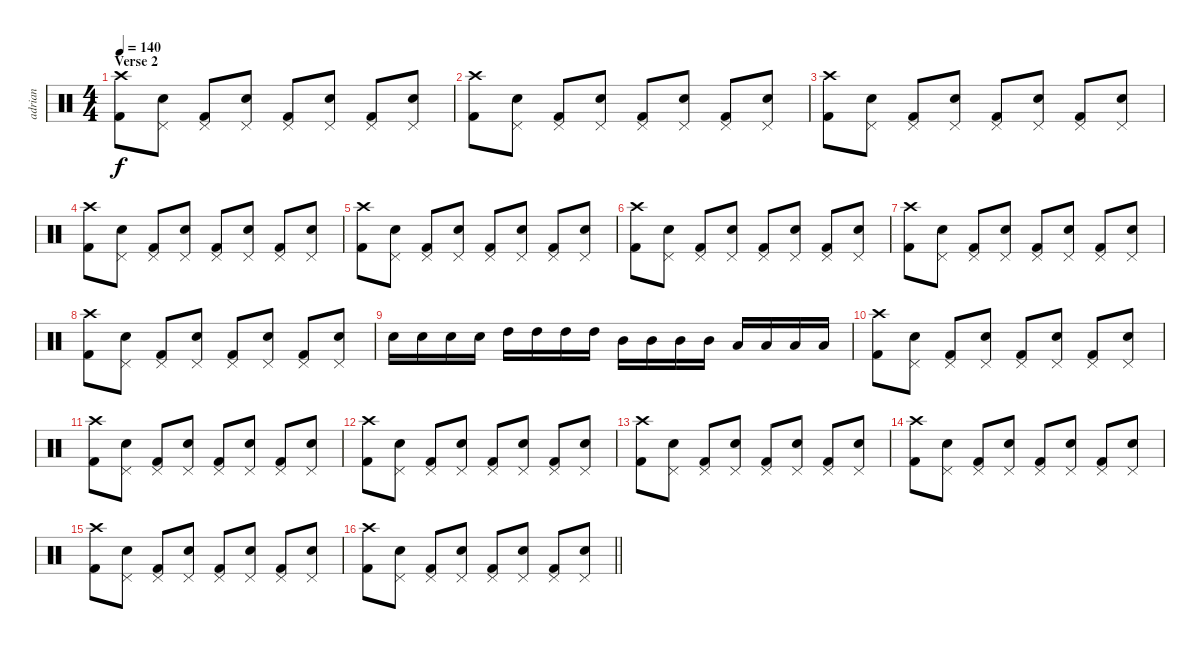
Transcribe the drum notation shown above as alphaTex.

\track ("adrian" "adrian") {instrument percussion}
\staff {score}
\articulation defaults
\ts (4 4)
\section ("" "Verse 2")
\tempo 140
\clef neutral
\ks c
("Kick (hit) 2" "Crash high (hit)").8{dy f} ("Electric Snare (hit)" "Pedal Hi-Hat (hit)").8 ("Kick (hit) 2" "Pedal Hi-Hat (hit)").8 ("Electric Snare (hit)" "Pedal Hi-Hat (hit)").8 ("Kick (hit) 2" "Pedal Hi-Hat (hit)").8 ("Electric Snare (hit)" "Pedal Hi-Hat (hit)").8 ("Kick (hit) 2" "Pedal Hi-Hat (hit)").8 ("Electric Snare (hit)" "Pedal Hi-Hat (hit)").8 |
("Kick (hit) 2" "Crash high (hit)").8 ("Electric Snare (hit)" "Pedal Hi-Hat (hit)").8 ("Kick (hit) 2" "Pedal Hi-Hat (hit)").8 ("Electric Snare (hit)" "Pedal Hi-Hat (hit)").8 ("Kick (hit) 2" "Pedal Hi-Hat (hit)").8 ("Electric Snare (hit)" "Pedal Hi-Hat (hit)").8 ("Kick (hit) 2" "Pedal Hi-Hat (hit)").8 ("Electric Snare (hit)" "Pedal Hi-Hat (hit)").8 |
("Kick (hit) 2" "Crash high (hit)").8 ("Electric Snare (hit)" "Pedal Hi-Hat (hit)").8 ("Kick (hit) 2" "Pedal Hi-Hat (hit)").8 ("Electric Snare (hit)" "Pedal Hi-Hat (hit)").8 ("Kick (hit) 2" "Pedal Hi-Hat (hit)").8 ("Electric Snare (hit)" "Pedal Hi-Hat (hit)").8 ("Kick (hit) 2" "Pedal Hi-Hat (hit)").8 ("Electric Snare (hit)" "Pedal Hi-Hat (hit)").8 |
("Kick (hit) 2" "Crash high (hit)").8 ("Electric Snare (hit)" "Pedal Hi-Hat (hit)").8 ("Kick (hit) 2" "Pedal Hi-Hat (hit)").8 ("Electric Snare (hit)" "Pedal Hi-Hat (hit)").8 ("Kick (hit) 2" "Pedal Hi-Hat (hit)").8 ("Electric Snare (hit)" "Pedal Hi-Hat (hit)").8 ("Kick (hit) 2" "Pedal Hi-Hat (hit)").8 ("Electric Snare (hit)" "Pedal Hi-Hat (hit)").8 |
("Kick (hit) 2" "Crash high (hit)").8 ("Electric Snare (hit)" "Pedal Hi-Hat (hit)").8 ("Kick (hit) 2" "Pedal Hi-Hat (hit)").8 ("Electric Snare (hit)" "Pedal Hi-Hat (hit)").8 ("Kick (hit) 2" "Pedal Hi-Hat (hit)").8 ("Electric Snare (hit)" "Pedal Hi-Hat (hit)").8 ("Kick (hit) 2" "Pedal Hi-Hat (hit)").8 ("Electric Snare (hit)" "Pedal Hi-Hat (hit)").8 |
("Kick (hit) 2" "Crash high (hit)").8 ("Electric Snare (hit)" "Pedal Hi-Hat (hit)").8 ("Kick (hit) 2" "Pedal Hi-Hat (hit)").8 ("Electric Snare (hit)" "Pedal Hi-Hat (hit)").8 ("Kick (hit) 2" "Pedal Hi-Hat (hit)").8 ("Electric Snare (hit)" "Pedal Hi-Hat (hit)").8 ("Kick (hit) 2" "Pedal Hi-Hat (hit)").8 ("Electric Snare (hit)" "Pedal Hi-Hat (hit)").8 |
("Kick (hit) 2" "Crash high (hit)").8 ("Electric Snare (hit)" "Pedal Hi-Hat (hit)").8 ("Kick (hit) 2" "Pedal Hi-Hat (hit)").8 ("Electric Snare (hit)" "Pedal Hi-Hat (hit)").8 ("Kick (hit) 2" "Pedal Hi-Hat (hit)").8 ("Electric Snare (hit)" "Pedal Hi-Hat (hit)").8 ("Kick (hit) 2" "Pedal Hi-Hat (hit)").8 ("Electric Snare (hit)" "Pedal Hi-Hat (hit)").8 |
("Kick (hit) 2" "Crash high (hit)").8 ("Electric Snare (hit)" "Pedal Hi-Hat (hit)").8 ("Kick (hit) 2" "Pedal Hi-Hat (hit)").8 ("Electric Snare (hit)" "Pedal Hi-Hat (hit)").8 ("Kick (hit) 2" "Pedal Hi-Hat (hit)").8 ("Electric Snare (hit)" "Pedal Hi-Hat (hit)").8 ("Kick (hit) 2" "Pedal Hi-Hat (hit)").8 ("Electric Snare (hit)" "Pedal Hi-Hat (hit)").8 |
"Snare (hit) 2".16 "Snare (hit) 2".16 "Snare (hit) 2".16 "Snare (hit) 2".16 "High Tom (hit)".16 "High Tom (hit)".16 "High Tom (hit)".16 "High Tom (hit)".16 "Mid Tom (hit)".16 "Mid Tom (hit)".16 "Mid Tom (hit)".16 "Mid Tom (hit)".16 "Low Tom (hit)".16 "Low Tom (hit)".16 "Low Tom (hit)".16 "Low Tom (hit)".16 |
("Kick (hit) 2" "Crash high (hit)").8 ("Electric Snare (hit)" "Pedal Hi-Hat (hit)").8 ("Kick (hit) 2" "Pedal Hi-Hat (hit)").8 ("Electric Snare (hit)" "Pedal Hi-Hat (hit)").8 ("Kick (hit) 2" "Pedal Hi-Hat (hit)").8 ("Electric Snare (hit)" "Pedal Hi-Hat (hit)").8 ("Kick (hit) 2" "Pedal Hi-Hat (hit)").8 ("Electric Snare (hit)" "Pedal Hi-Hat (hit)").8 |
("Kick (hit) 2" "Crash high (hit)").8 ("Electric Snare (hit)" "Pedal Hi-Hat (hit)").8 ("Kick (hit) 2" "Pedal Hi-Hat (hit)").8 ("Electric Snare (hit)" "Pedal Hi-Hat (hit)").8 ("Kick (hit) 2" "Pedal Hi-Hat (hit)").8 ("Electric Snare (hit)" "Pedal Hi-Hat (hit)").8 ("Kick (hit) 2" "Pedal Hi-Hat (hit)").8 ("Electric Snare (hit)" "Pedal Hi-Hat (hit)").8 |
("Kick (hit) 2" "Crash high (hit)").8 ("Electric Snare (hit)" "Pedal Hi-Hat (hit)").8 ("Kick (hit) 2" "Pedal Hi-Hat (hit)").8 ("Electric Snare (hit)" "Pedal Hi-Hat (hit)").8 ("Kick (hit) 2" "Pedal Hi-Hat (hit)").8 ("Electric Snare (hit)" "Pedal Hi-Hat (hit)").8 ("Kick (hit) 2" "Pedal Hi-Hat (hit)").8 ("Electric Snare (hit)" "Pedal Hi-Hat (hit)").8 |
("Kick (hit) 2" "Crash high (hit)").8 ("Electric Snare (hit)" "Pedal Hi-Hat (hit)").8 ("Kick (hit) 2" "Pedal Hi-Hat (hit)").8 ("Electric Snare (hit)" "Pedal Hi-Hat (hit)").8 ("Kick (hit) 2" "Pedal Hi-Hat (hit)").8 ("Electric Snare (hit)" "Pedal Hi-Hat (hit)").8 ("Kick (hit) 2" "Pedal Hi-Hat (hit)").8 ("Electric Snare (hit)" "Pedal Hi-Hat (hit)").8 |
("Kick (hit) 2" "Crash high (hit)").8 ("Electric Snare (hit)" "Pedal Hi-Hat (hit)").8 ("Kick (hit) 2" "Pedal Hi-Hat (hit)").8 ("Electric Snare (hit)" "Pedal Hi-Hat (hit)").8 ("Kick (hit) 2" "Pedal Hi-Hat (hit)").8 ("Electric Snare (hit)" "Pedal Hi-Hat (hit)").8 ("Kick (hit) 2" "Pedal Hi-Hat (hit)").8 ("Electric Snare (hit)" "Pedal Hi-Hat (hit)").8 |
("Kick (hit) 2" "Crash high (hit)").8 ("Electric Snare (hit)" "Pedal Hi-Hat (hit)").8 ("Kick (hit) 2" "Pedal Hi-Hat (hit)").8 ("Electric Snare (hit)" "Pedal Hi-Hat (hit)").8 ("Kick (hit) 2" "Pedal Hi-Hat (hit)").8 ("Electric Snare (hit)" "Pedal Hi-Hat (hit)").8 ("Kick (hit) 2" "Pedal Hi-Hat (hit)").8 ("Electric Snare (hit)" "Pedal Hi-Hat (hit)").8 |
\barLineRight lightlight
("Kick (hit) 2" "Crash high (hit)").8 ("Electric Snare (hit)" "Pedal Hi-Hat (hit)").8 ("Kick (hit) 2" "Pedal Hi-Hat (hit)").8 ("Electric Snare (hit)" "Pedal Hi-Hat (hit)").8 ("Kick (hit) 2" "Pedal Hi-Hat (hit)").8 ("Electric Snare (hit)" "Pedal Hi-Hat (hit)").8 ("Kick (hit) 2" "Pedal Hi-Hat (hit)").8 ("Electric Snare (hit)" "Pedal Hi-Hat (hit)").8
